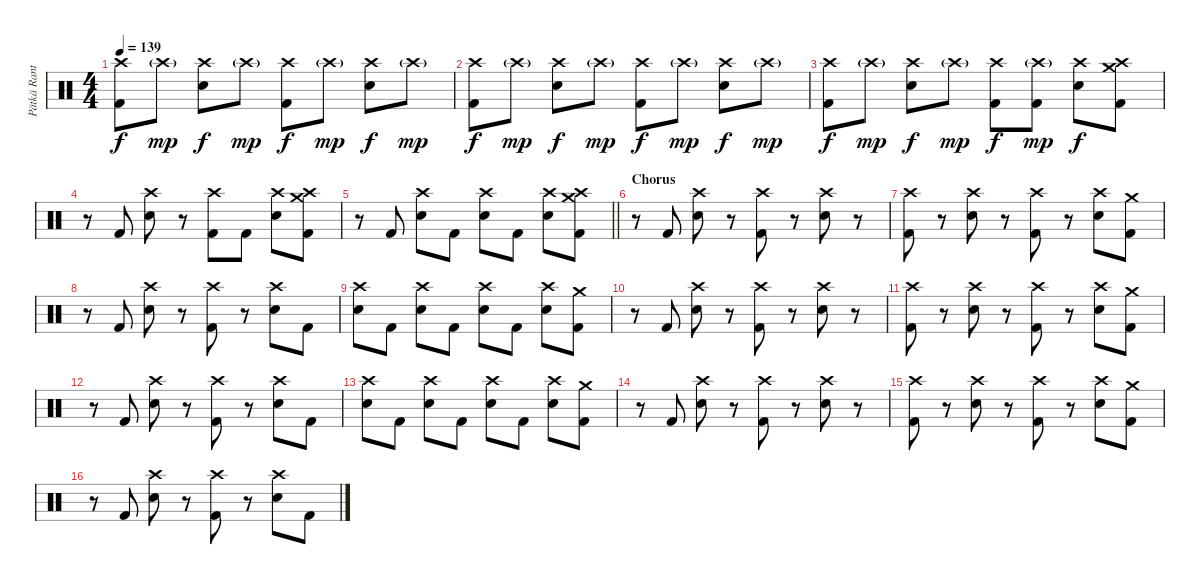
\track ("Pätkä Rantala (Drums)" "Pätkä Rant") {instrument percussion}
\staff {score}
\articulation defaults
\ts (4 4)
\tempo 139
\clef neutral
\ks c
("Crash high (hit)" "Kick (hit) 2").8{dy f} "Crash high (hit)"{g}.8{dy mp} ("Crash high (hit)" "Snare (hit) 2").8{dy f} "Crash high (hit)"{g}.8{dy mp} ("Crash high (hit)" "Kick (hit) 2").8{dy f} "Crash high (hit)"{g}.8{dy mp} ("Crash high (hit)" "Snare (hit) 2").8{dy f} "Crash high (hit)"{g}.8{dy mp} |
("Crash high (hit)" "Kick (hit) 2").8{dy f} "Crash high (hit)"{g}.8{dy mp} ("Crash high (hit)" "Snare (hit) 2").8{dy f} "Crash high (hit)"{g}.8{dy mp} ("Crash high (hit)" "Kick (hit) 2").8{dy f} "Crash high (hit)"{g}.8{dy mp} ("Crash high (hit)" "Snare (hit) 2").8{dy f} "Crash high (hit)"{g}.8{dy mp} |
("Crash high (hit)" "Kick (hit) 2").8{dy f} "Crash high (hit)"{g}.8{dy mp} ("Crash high (hit)" "Snare (hit) 2").8{dy f} "Crash high (hit)"{g}.8{dy mp} ("Crash high (hit)" "Kick (hit) 2").8{dy f} ("Crash high (hit)"{g} "Kick (hit) 2").8{dy mp} ("Crash high (hit)" "Snare (hit) 2").8{dy f} ("Crash medium (hit)" "Crash high (hit)" "Kick (hit) 2").8 |
r.8 "Kick (hit) 2".8 ("Crash high (hit)" "Snare (hit) 2").8 r.8 ("Crash high (hit)" "Kick (hit) 2").8 "Kick (hit) 2".8 ("Crash high (hit)" "Snare (hit) 2").8 ("Crash medium (hit)" "Crash high (hit)" "Kick (hit) 2").8 |
\barLineRight lightlight
r.8 "Kick (hit) 2".8 ("Crash high (hit)" "Snare (hit) 2").8 "Kick (hit) 2".8 ("Crash high (hit)" "Snare (hit) 2").8 "Kick (hit) 2".8 ("Crash high (hit)" "Snare (hit) 2").8 ("Crash medium (hit)" "Crash high (hit)" "Kick (hit) 2").8 |
\section ("" "Chorus")
r.8 "Kick (hit) 2".8 ("Crash high (hit)" "Snare (hit) 2").8 r.8 ("Crash high (hit)" "Kick (hit) 2").8 r.8 ("Crash high (hit)" "Snare (hit) 2").8 r.8 |
("Crash high (hit)" "Kick (hit) 2").8 r.8 ("Crash high (hit)" "Snare (hit) 2").8 r.8 ("Crash high (hit)" "Kick (hit) 2").8 r.8 ("Crash high (hit)" "Snare (hit) 2").8 ("Crash medium (hit)" "Kick (hit) 2").8 |
r.8 "Kick (hit) 2".8 ("Crash high (hit)" "Snare (hit) 2").8 r.8 ("Crash high (hit)" "Kick (hit) 2").8 r.8 ("Crash high (hit)" "Snare (hit) 2").8 "Kick (hit) 2".8 |
("Crash high (hit)" "Snare (hit) 2").8 "Kick (hit) 2".8 ("Crash high (hit)" "Snare (hit) 2").8 "Kick (hit) 2".8 ("Crash high (hit)" "Snare (hit) 2").8 "Kick (hit) 2".8 ("Crash high (hit)" "Snare (hit) 2").8 ("Crash medium (hit)" "Kick (hit) 2").8 |
r.8 "Kick (hit) 2".8 ("Crash high (hit)" "Snare (hit) 2").8 r.8 ("Crash high (hit)" "Kick (hit) 2").8 r.8 ("Crash high (hit)" "Snare (hit) 2").8 r.8 |
("Crash high (hit)" "Kick (hit) 2").8 r.8 ("Crash high (hit)" "Snare (hit) 2").8 r.8 ("Crash high (hit)" "Kick (hit) 2").8 r.8 ("Crash high (hit)" "Snare (hit) 2").8 ("Crash medium (hit)" "Kick (hit) 2").8 |
r.8 "Kick (hit) 2".8 ("Crash high (hit)" "Snare (hit) 2").8 r.8 ("Crash high (hit)" "Kick (hit) 2").8 r.8 ("Crash high (hit)" "Snare (hit) 2").8 "Kick (hit) 2".8 |
("Crash high (hit)" "Snare (hit) 2").8 "Kick (hit) 2".8 ("Crash high (hit)" "Snare (hit) 2").8 "Kick (hit) 2".8 ("Crash high (hit)" "Snare (hit) 2").8 "Kick (hit) 2".8 ("Crash high (hit)" "Snare (hit) 2").8 ("Crash medium (hit)" "Kick (hit) 2").8 |
r.8 "Kick (hit) 2".8 ("Crash high (hit)" "Snare (hit) 2").8 r.8 ("Crash high (hit)" "Kick (hit) 2").8 r.8 ("Crash high (hit)" "Snare (hit) 2").8 r.8 |
("Crash high (hit)" "Kick (hit) 2").8 r.8 ("Crash high (hit)" "Snare (hit) 2").8 r.8 ("Crash high (hit)" "Kick (hit) 2").8 r.8 ("Crash high (hit)" "Snare (hit) 2").8 ("Crash medium (hit)" "Kick (hit) 2").8 |
r.8 "Kick (hit) 2".8 ("Crash high (hit)" "Snare (hit) 2").8 r.8 ("Crash high (hit)" "Kick (hit) 2").8 r.8 ("Crash high (hit)" "Snare (hit) 2").8 "Kick (hit) 2".8
